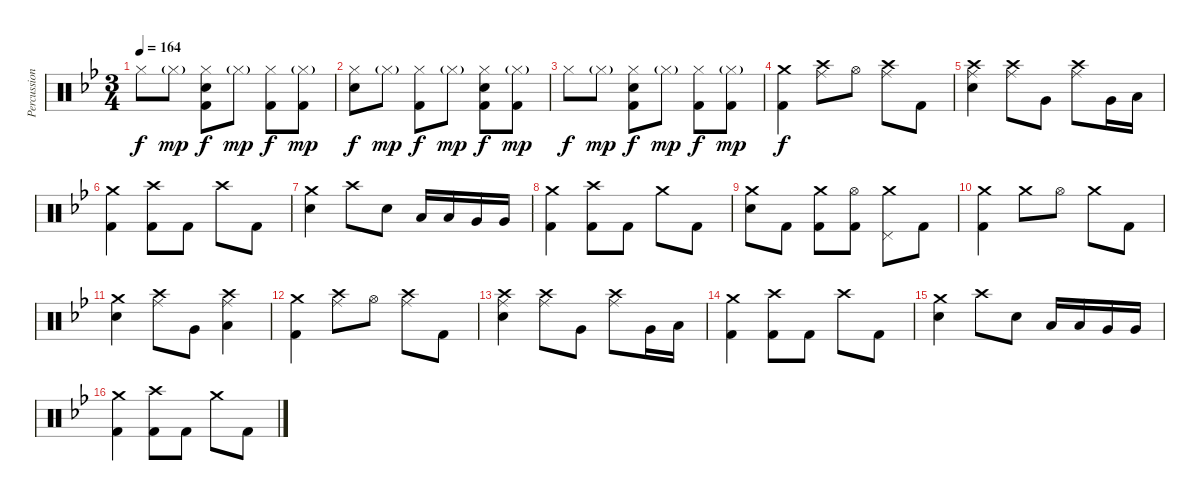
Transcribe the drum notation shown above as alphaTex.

\track ("Percussion" "Percussion") {instrument percussion}
\staff {score}
\articulation defaults
\ts (3 4)
\tempo 164
\clef neutral
\ks bb "Hi-Hat (closed)".8{dy f} "Hi-Hat (closed)"{g}.8{dy mp}
("Hi-Hat (closed)" "Electric Snare (hit)" "Kick (hit) 2").8{dy f} "Hi-Hat (closed)"{g}.8{dy mp} ("Hi-Hat (closed)" "Kick (hit) 2").8{dy f} ("Hi-Hat (closed)"{g} "Kick (hit) 2").8{dy mp} |
("Hi-Hat (closed)" "Electric Snare (hit)").8{dy f} "Hi-Hat (closed)"{g}.8{dy mp} ("Hi-Hat (closed)" "Kick (hit) 2").8{dy f} "Hi-Hat (closed)"{g}.8{dy mp} ("Hi-Hat (closed)" "Electric Snare (hit)" "Kick (hit) 2").8{dy f} ("Hi-Hat (closed)"{g} "Kick (hit) 2").8{dy mp} |
"Hi-Hat (closed)".8{dy f} "Hi-Hat (closed)"{g}.8{dy mp} ("Hi-Hat (closed)" "Electric Snare (hit)" "Kick (hit) 2").8{dy f} "Hi-Hat (closed)"{g}.8{dy mp} ("Hi-Hat (closed)" "Kick (hit) 2").8{dy f} ("Hi-Hat (closed)"{g} "Kick (hit) 2").8{dy mp} |
("Crash medium (hit)" "Kick (hit) 2").4{dy f} ("Crash high (hit)" "Ride (middle)").8 "Hi-Hat (open)".8 ("Crash high (hit)" "Ride (middle)").8 "Kick (hit) 2".8 |
("Crash high (hit)" "Ride (middle)" "Electric Snare (hit)").4 ("Crash high (hit)" "Ride (middle)").8 "Very Low Tom (hit)".8 ("Crash high (hit)" "Ride (middle)").8 "Very Low Tom (hit)".16 "Low Floor Tom (hit)".16 |
("Crash medium (hit)" "Kick (hit) 2").4 ("Crash high (hit)" "Kick (hit) 2").8 "Kick (hit) 2".8 "Crash high (hit)".8 "Kick (hit) 2".8 |
("Crash medium (hit)" "Electric Snare (hit)").4 "Crash high (hit)".8 "Electric Snare (hit)".8 "Low Tom (hit)".16 "Low Tom (hit)".16 "Very Low Tom (hit)".16 "Very Low Tom (hit)".16 |
("Crash medium (hit)" "Kick (hit) 2").4 ("Crash high (hit)" "Kick (hit) 2").8 "Kick (hit) 2".8 "Crash medium (hit)".8 "Kick (hit) 2".8 |
("Crash medium (hit)" "Electric Snare (hit)").8 "Kick (hit) 2".8 ("Crash medium (hit)" "Kick (hit) 2").8 ("Hi-Hat (open)" "Kick (hit) 2").8 ("Crash medium (hit)" "Pedal Hi-Hat (hit)").8 "Kick (hit) 2".8 |
("Crash medium (hit)" "Kick (hit) 2").4 "Crash medium (hit)".8 "Hi-Hat (open)".8 "Crash medium (hit)".8 "Kick (hit) 2".8 |
("Crash medium (hit)" "Electric Snare (hit)").4 ("Crash high (hit)" "Ride (middle)").8 "Very Low Tom (hit)".8 ("Crash high (hit)" "Ride (middle)" "Low Floor Tom (hit)").4 |
("Crash medium (hit)" "Kick (hit) 2").4 ("Crash high (hit)" "Ride (middle)").8 "Hi-Hat (open)".8 ("Crash high (hit)" "Ride (middle)").8 "Kick (hit) 2".8 |
("Crash high (hit)" "Ride (middle)" "Electric Snare (hit)").4 ("Crash high (hit)" "Ride (middle)").8 "Very Low Tom (hit)".8 ("Crash high (hit)" "Ride (middle)").8 "Very Low Tom (hit)".16 "Low Floor Tom (hit)".16 |
("Crash medium (hit)" "Kick (hit) 2").4 ("Crash high (hit)" "Kick (hit) 2").8 "Kick (hit) 2".8 "Crash high (hit)".8 "Kick (hit) 2".8 |
("Crash medium (hit)" "Electric Snare (hit)").4 "Crash high (hit)".8 "Electric Snare (hit)".8 "Low Tom (hit)".16 "Low Tom (hit)".16 "Very Low Tom (hit)".16 "Very Low Tom (hit)".16 |
("Crash medium (hit)" "Kick (hit) 2").4 ("Crash high (hit)" "Kick (hit) 2").8 "Kick (hit) 2".8 "Crash medium (hit)".8 "Kick (hit) 2".8
